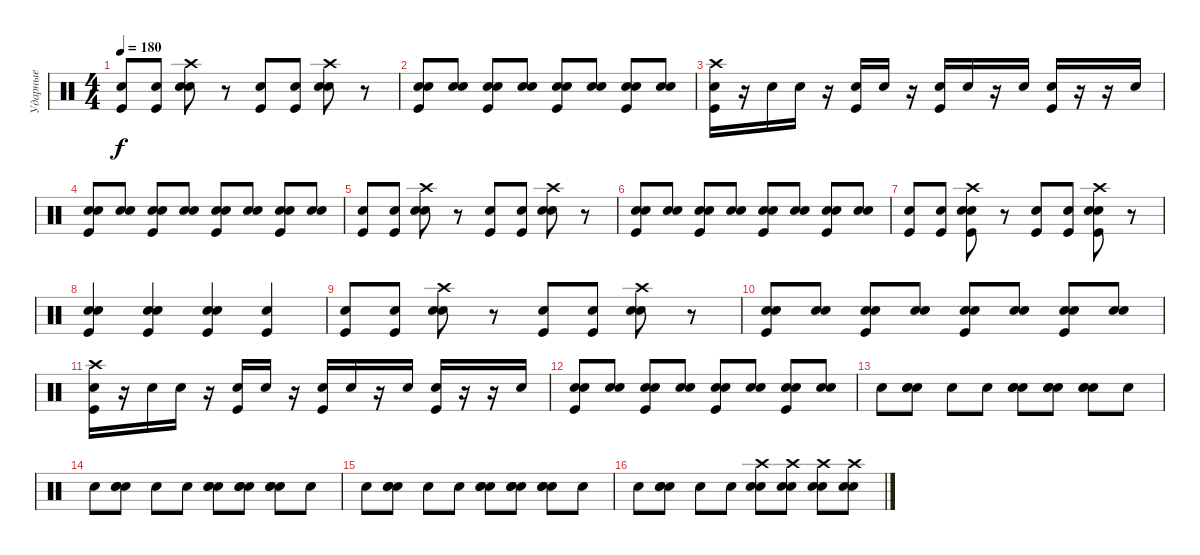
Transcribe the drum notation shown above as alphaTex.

\track ("Ударные" "Ударные") {instrument percussion}
\staff {score}
\articulation defaults
\ts (4 4)
\tempo 180
\clef neutral
\ks c
("Kick (hit)" "Electric Snare (hit)").8{dy f} ("Kick (hit)" "Electric Snare (hit)").8 ("Crash high (hit)" "Electric Snare (hit)" "Electric Snare (hit)").8 r.8 ("Kick (hit)" "Electric Snare (hit)").8 ("Kick (hit)" "Electric Snare (hit)").8 ("Crash high (hit)" "Electric Snare (hit)" "Electric Snare (hit)").8 r.8 |
("Kick (hit)" "Snare (hit) 2" "Electric Snare (hit)").8 ("Snare (hit) 2" "Electric Snare (hit)").8 ("Kick (hit)" "Snare (hit) 2" "Electric Snare (hit)").8 ("Snare (hit) 2" "Electric Snare (hit)").8 ("Kick (hit)" "Electric Snare (hit)" "Electric Snare (hit)").8 ("Electric Snare (hit)" "Electric Snare (hit)").8 ("Kick (hit)" "Electric Snare (hit)" "Electric Snare (hit)").8 ("Electric Snare (hit)" "Electric Snare (hit)").8 |
("Kick (hit)" "Crash high (hit)" "Electric Snare (hit)").16 r.16 "Electric Snare (hit)".16 "Electric Snare (hit)".16 r.16 ("Kick (hit)" "Electric Snare (hit)").16 "Electric Snare (hit)".16 r.16 ("Kick (hit)" "Electric Snare (hit)").16 "Electric Snare (hit)".16 r.16 "Electric Snare (hit)".16 ("Kick (hit)" "Electric Snare (hit)").16 r.16 r.16 "Electric Snare (hit)".16 |
("Kick (hit)" "Electric Snare (hit)" "Snare (hit) 2").8 ("Electric Snare (hit)" "Snare (hit) 2").8 ("Kick (hit)" "Electric Snare (hit)" "Snare (hit) 2").8 ("Electric Snare (hit)" "Snare (hit) 2").8 ("Kick (hit)" "Electric Snare (hit)" "Electric Snare (hit)").8 ("Electric Snare (hit)" "Electric Snare (hit)").8 ("Kick (hit)" "Electric Snare (hit)" "Electric Snare (hit)").8 ("Electric Snare (hit)" "Electric Snare (hit)").8 |
("Kick (hit)" "Electric Snare (hit)").8 ("Kick (hit)" "Electric Snare (hit)").8 ("Crash high (hit)" "Electric Snare (hit)" "Electric Snare (hit)").8 r.8 ("Kick (hit)" "Electric Snare (hit)").8 ("Kick (hit)" "Electric Snare (hit)").8 ("Crash high (hit)" "Electric Snare (hit)" "Electric Snare (hit)").8 r.8 |
("Kick (hit)" "Snare (hit) 2" "Electric Snare (hit)").8 ("Snare (hit) 2" "Electric Snare (hit)").8 ("Kick (hit)" "Snare (hit) 2" "Electric Snare (hit)").8 ("Snare (hit) 2" "Electric Snare (hit)").8 ("Kick (hit)" "Electric Snare (hit)" "Electric Snare (hit)").8 ("Electric Snare (hit)" "Electric Snare (hit)").8 ("Kick (hit)" "Electric Snare (hit)" "Electric Snare (hit)").8 ("Electric Snare (hit)" "Electric Snare (hit)").8 |
("Kick (hit)" "Electric Snare (hit)").8 ("Kick (hit)" "Electric Snare (hit)").8 ("Kick (hit)" "Crash high (hit)" "Electric Snare (hit)" "Electric Snare (hit)").8 r.8 ("Kick (hit)" "Electric Snare (hit)").8 ("Kick (hit)" "Electric Snare (hit)").8 ("Kick (hit)" "Crash high (hit)" "Electric Snare (hit)" "Electric Snare (hit)").8 r.8 |
("Electric Snare (hit)" "Electric Snare (hit)" "Kick (hit)").4 ("Electric Snare (hit)" "Electric Snare (hit)" "Kick (hit)").4 ("Electric Snare (hit)" "Kick (hit)" "Electric Snare (hit)").4 ("Electric Snare (hit)" "Kick (hit)").4 |
("Kick (hit)" "Electric Snare (hit)").8 ("Kick (hit)" "Electric Snare (hit)").8 ("Crash high (hit)" "Electric Snare (hit)" "Electric Snare (hit)").8 r.8 ("Kick (hit)" "Electric Snare (hit)").8 ("Kick (hit)" "Electric Snare (hit)").8 ("Crash high (hit)" "Electric Snare (hit)" "Electric Snare (hit)").8 r.8 |
("Kick (hit)" "Snare (hit) 2" "Electric Snare (hit)").8 ("Snare (hit) 2" "Electric Snare (hit)").8 ("Kick (hit)" "Snare (hit) 2" "Electric Snare (hit)").8 ("Snare (hit) 2" "Electric Snare (hit)").8 ("Kick (hit)" "Electric Snare (hit)" "Electric Snare (hit)").8 ("Electric Snare (hit)" "Electric Snare (hit)").8 ("Kick (hit)" "Electric Snare (hit)" "Electric Snare (hit)").8 ("Electric Snare (hit)" "Electric Snare (hit)").8 |
("Kick (hit)" "Crash high (hit)" "Electric Snare (hit)").16 r.16 "Electric Snare (hit)".16 "Electric Snare (hit)".16 r.16 ("Kick (hit)" "Electric Snare (hit)").16 "Electric Snare (hit)".16 r.16 ("Kick (hit)" "Electric Snare (hit)").16 "Electric Snare (hit)".16 r.16 "Electric Snare (hit)".16 ("Kick (hit)" "Electric Snare (hit)").16 r.16 r.16 "Electric Snare (hit)".16 |
("Kick (hit)" "Electric Snare (hit)" "Snare (hit) 2").8 ("Electric Snare (hit)" "Snare (hit) 2").8 ("Kick (hit)" "Electric Snare (hit)" "Snare (hit) 2").8 ("Electric Snare (hit)" "Snare (hit) 2").8 ("Kick (hit)" "Electric Snare (hit)" "Electric Snare (hit)").8 ("Electric Snare (hit)" "Electric Snare (hit)").8 ("Kick (hit)" "Electric Snare (hit)" "Electric Snare (hit)").8 ("Electric Snare (hit)" "Electric Snare (hit)").8 |
"Electric Snare (hit)".8 ("Snare (hit) 2" "Electric Snare (hit)" "Electric Snare (hit)").8 "Electric Snare (hit)".8 "Electric Snare (hit)".8 ("Snare (hit) 2" "Electric Snare (hit)" "Electric Snare (hit)").8 ("Snare (hit) 2" "Electric Snare (hit)" "Electric Snare (hit)").8 ("Snare (hit) 2" "Electric Snare (hit)" "Electric Snare (hit)").8 "Electric Snare (hit)".8 |
"Electric Snare (hit)".8 ("Snare (hit) 2" "Electric Snare (hit)" "Electric Snare (hit)").8 "Electric Snare (hit)".8 "Electric Snare (hit)".8 ("Snare (hit) 2" "Electric Snare (hit)" "Electric Snare (hit)").8 ("Snare (hit) 2" "Electric Snare (hit)" "Electric Snare (hit)").8 ("Snare (hit) 2" "Electric Snare (hit)" "Electric Snare (hit)").8 "Electric Snare (hit)".8 |
"Electric Snare (hit)".8 ("Snare (hit) 2" "Electric Snare (hit)" "Electric Snare (hit)").8 "Electric Snare (hit)".8 "Electric Snare (hit)".8 ("Snare (hit) 2" "Electric Snare (hit)" "Electric Snare (hit)").8 ("Snare (hit) 2" "Electric Snare (hit)" "Electric Snare (hit)").8 ("Snare (hit) 2" "Electric Snare (hit)" "Electric Snare (hit)").8 "Electric Snare (hit)".8 |
"Electric Snare (hit)".8 ("Snare (hit) 2" "Electric Snare (hit)" "Electric Snare (hit)").8 "Electric Snare (hit)".8 "Electric Snare (hit)".8 ("Crash high (hit)" "Electric Snare (hit)" "Electric Snare (hit)").8 ("Crash high (hit)" "Electric Snare (hit)" "Electric Snare (hit)").8 ("Crash high (hit)" "Electric Snare (hit)" "Electric Snare (hit)").8 ("Crash high (hit)" "Electric Snare (hit)" "Electric Snare (hit)").8
